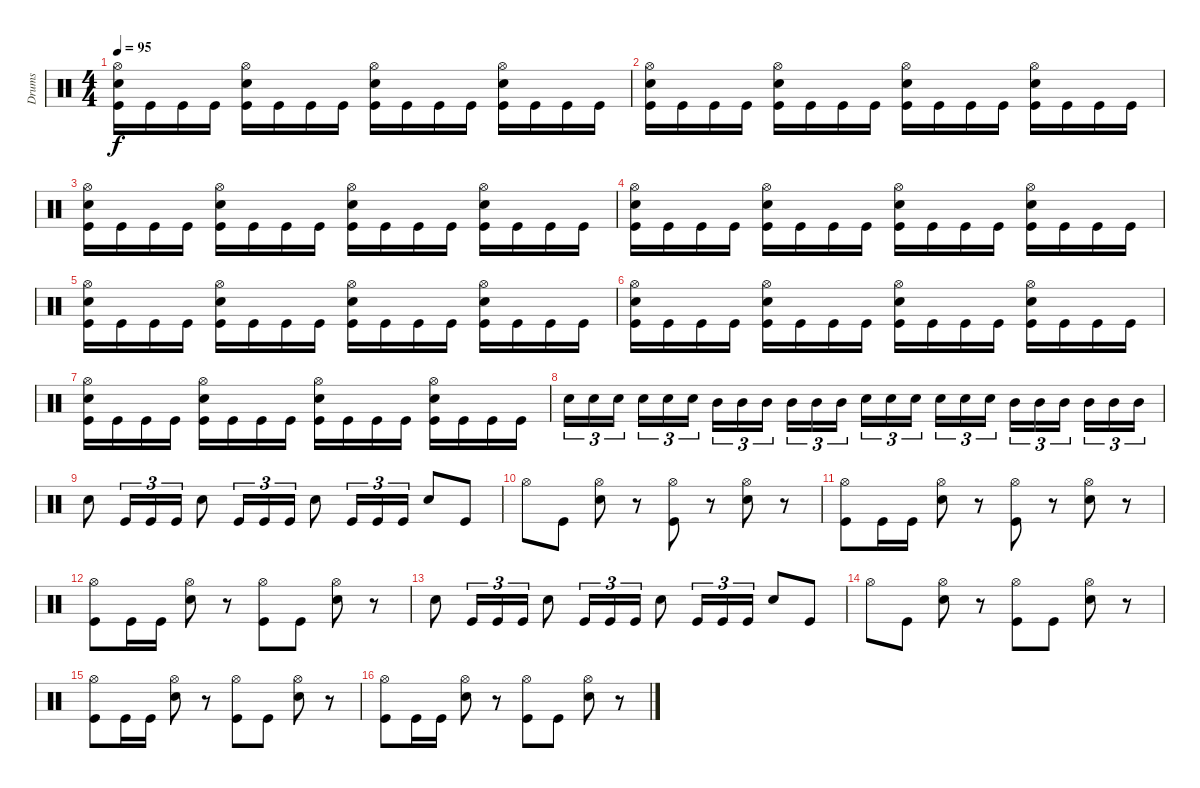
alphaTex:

\track ("Drums" "Drums") {instrument percussion}
\staff {score}
\articulation defaults
\ts (4 4)
\tempo 95
\clef neutral
\ks c
("Kick (hit)" "Snare (hit) 2" "Hi-Hat (open)").16{dy f} "Kick (hit)".16 "Kick (hit)".16 "Kick (hit)".16 ("Kick (hit)" "Snare (hit) 2" "Hi-Hat (open)").16 "Kick (hit)".16 "Kick (hit)".16 "Kick (hit)".16 ("Kick (hit)" "Snare (hit) 2" "Hi-Hat (open)").16 "Kick (hit)".16 "Kick (hit)".16 "Kick (hit)".16 ("Kick (hit)" "Snare (hit) 2" "Hi-Hat (open)").16 "Kick (hit)".16 "Kick (hit)".16 "Kick (hit)".16 |
("Kick (hit)" "Snare (hit) 2" "Hi-Hat (open)").16 "Kick (hit)".16 "Kick (hit)".16 "Kick (hit)".16 ("Kick (hit)" "Snare (hit) 2" "Hi-Hat (open)").16 "Kick (hit)".16 "Kick (hit)".16 "Kick (hit)".16 ("Kick (hit)" "Snare (hit) 2" "Hi-Hat (open)").16 "Kick (hit)".16 "Kick (hit)".16 "Kick (hit)".16 ("Kick (hit)" "Snare (hit) 2" "Hi-Hat (open)").16 "Kick (hit)".16 "Kick (hit)".16 "Kick (hit)".16 |
("Kick (hit)" "Snare (hit) 2" "Hi-Hat (open)").16 "Kick (hit)".16 "Kick (hit)".16 "Kick (hit)".16 ("Kick (hit)" "Snare (hit) 2" "Hi-Hat (open)").16 "Kick (hit)".16 "Kick (hit)".16 "Kick (hit)".16 ("Kick (hit)" "Snare (hit) 2" "Hi-Hat (open)").16 "Kick (hit)".16 "Kick (hit)".16 "Kick (hit)".16 ("Kick (hit)" "Snare (hit) 2" "Hi-Hat (open)").16 "Kick (hit)".16 "Kick (hit)".16 "Kick (hit)".16 |
("Kick (hit)" "Snare (hit) 2" "Hi-Hat (open)").16 "Kick (hit)".16 "Kick (hit)".16 "Kick (hit)".16 ("Kick (hit)" "Snare (hit) 2" "Hi-Hat (open)").16 "Kick (hit)".16 "Kick (hit)".16 "Kick (hit)".16 ("Kick (hit)" "Snare (hit) 2" "Hi-Hat (open)").16 "Kick (hit)".16 "Kick (hit)".16 "Kick (hit)".16 ("Kick (hit)" "Snare (hit) 2" "Hi-Hat (open)").16 "Kick (hit)".16 "Kick (hit)".16 "Kick (hit)".16 |
("Kick (hit)" "Snare (hit) 2" "Hi-Hat (open)").16 "Kick (hit)".16 "Kick (hit)".16 "Kick (hit)".16 ("Kick (hit)" "Snare (hit) 2" "Hi-Hat (open)").16 "Kick (hit)".16 "Kick (hit)".16 "Kick (hit)".16 ("Kick (hit)" "Snare (hit) 2" "Hi-Hat (open)").16 "Kick (hit)".16 "Kick (hit)".16 "Kick (hit)".16 ("Kick (hit)" "Snare (hit) 2" "Hi-Hat (open)").16 "Kick (hit)".16 "Kick (hit)".16 "Kick (hit)".16 |
("Kick (hit)" "Snare (hit) 2" "Hi-Hat (open)").16 "Kick (hit)".16 "Kick (hit)".16 "Kick (hit)".16 ("Kick (hit)" "Snare (hit) 2" "Hi-Hat (open)").16 "Kick (hit)".16 "Kick (hit)".16 "Kick (hit)".16 ("Kick (hit)" "Snare (hit) 2" "Hi-Hat (open)").16 "Kick (hit)".16 "Kick (hit)".16 "Kick (hit)".16 ("Kick (hit)" "Snare (hit) 2" "Hi-Hat (open)").16 "Kick (hit)".16 "Kick (hit)".16 "Kick (hit)".16 |
("Kick (hit)" "Snare (hit) 2" "Hi-Hat (open)").16 "Kick (hit)".16 "Kick (hit)".16 "Kick (hit)".16 ("Kick (hit)" "Snare (hit) 2" "Hi-Hat (open)").16 "Kick (hit)".16 "Kick (hit)".16 "Kick (hit)".16 ("Kick (hit)" "Snare (hit) 2" "Hi-Hat (open)").16 "Kick (hit)".16 "Kick (hit)".16 "Kick (hit)".16 ("Kick (hit)" "Snare (hit) 2" "Hi-Hat (open)").16 "Kick (hit)".16 "Kick (hit)".16 "Kick (hit)".16 |
"Snare (hit) 2".16{tu (3 2)} "Snare (hit) 2".16{tu (3 2)} "Snare (hit) 2".16{tu (3 2)} "Snare (hit) 2".16{tu (3 2)} "Snare (hit) 2".16{tu (3 2)} "Snare (hit) 2".16{tu (3 2)} "Mid Tom (hit)".16{tu (3 2)} "Mid Tom (hit)".16{tu (3 2)} "Mid Tom (hit)".16{tu (3 2)} "Mid Tom (hit)".16{tu (3 2)} "Mid Tom (hit)".16{tu (3 2)} "Mid Tom (hit)".16{tu (3 2)} "Snare (hit) 2".16{tu (3 2)} "Snare (hit) 2".16{tu (3 2)} "Snare (hit) 2".16{tu (3 2)} "Snare (hit) 2".16{tu (3 2)} "Snare (hit) 2".16{tu (3 2)} "Snare (hit) 2".16{tu (3 2)} "Mid Tom (hit)".16{tu (3 2)} "Mid Tom (hit)".16{tu (3 2)} "Mid Tom (hit)".16{tu (3 2)} "Mid Tom (hit)".16{tu (3 2)} "Mid Tom (hit)".16{tu (3 2)} "Mid Tom (hit)".16{tu (3 2)} |
"Snare (hit) 2".8 "Kick (hit)".16{tu (3 2)} "Kick (hit)".16{tu (3 2)} "Kick (hit)".16{tu (3 2)} "Snare (hit) 2".8 "Kick (hit)".16{tu (3 2)} "Kick (hit)".16{tu (3 2)} "Kick (hit)".16{tu (3 2)} "Snare (hit) 2".8 "Kick (hit)".16{tu (3 2)} "Kick (hit)".16{tu (3 2)} "Kick (hit)".16{tu (3 2)} "Snare (hit) 2".8 "Kick (hit)".8 |
"Hi-Hat (open)".8 "Kick (hit)".8 ("Snare (hit) 2" "Hi-Hat (open)").8 r.8 ("Kick (hit)" "Hi-Hat (open)").8 r.8 ("Snare (hit) 2" "Hi-Hat (open)").8 r.8 |
("Kick (hit)" "Hi-Hat (open)").8 "Kick (hit)".16 "Kick (hit)".16 ("Snare (hit) 2" "Hi-Hat (open)").8 r.8 ("Kick (hit)" "Hi-Hat (open)").8 r.8 ("Snare (hit) 2" "Hi-Hat (open)").8 r.8 |
("Kick (hit)" "Hi-Hat (open)").8 "Kick (hit)".16 "Kick (hit)".16 ("Snare (hit) 2" "Hi-Hat (open)").8 r.8 ("Kick (hit)" "Hi-Hat (open)").8 "Kick (hit)".8 ("Snare (hit) 2" "Hi-Hat (open)").8 r.8 |
"Snare (hit) 2".8 "Kick (hit)".16{tu (3 2)} "Kick (hit)".16{tu (3 2)} "Kick (hit)".16{tu (3 2)} "Snare (hit) 2".8 "Kick (hit)".16{tu (3 2)} "Kick (hit)".16{tu (3 2)} "Kick (hit)".16{tu (3 2)} "Snare (hit) 2".8 "Kick (hit)".16{tu (3 2)} "Kick (hit)".16{tu (3 2)} "Kick (hit)".16{tu (3 2)} "Snare (hit) 2".8 "Kick (hit)".8 |
"Hi-Hat (open)".8 "Kick (hit)".8 ("Snare (hit) 2" "Hi-Hat (open)").8 r.8 ("Kick (hit)" "Hi-Hat (open)").8 "Kick (hit)".8 ("Snare (hit) 2" "Hi-Hat (open)").8 r.8 |
("Kick (hit)" "Hi-Hat (open)").8 "Kick (hit)".16 "Kick (hit)".16 ("Snare (hit) 2" "Hi-Hat (open)").8 r.8 ("Kick (hit)" "Hi-Hat (open)").8 "Kick (hit)".8 ("Snare (hit) 2" "Hi-Hat (open)").8 r.8 |
("Kick (hit)" "Hi-Hat (open)").8 "Kick (hit)".16 "Kick (hit)".16 ("Snare (hit) 2" "Hi-Hat (open)").8 r.8 ("Kick (hit)" "Hi-Hat (open)").8 "Kick (hit)".8 ("Snare (hit) 2" "Hi-Hat (open)").8 r.8
